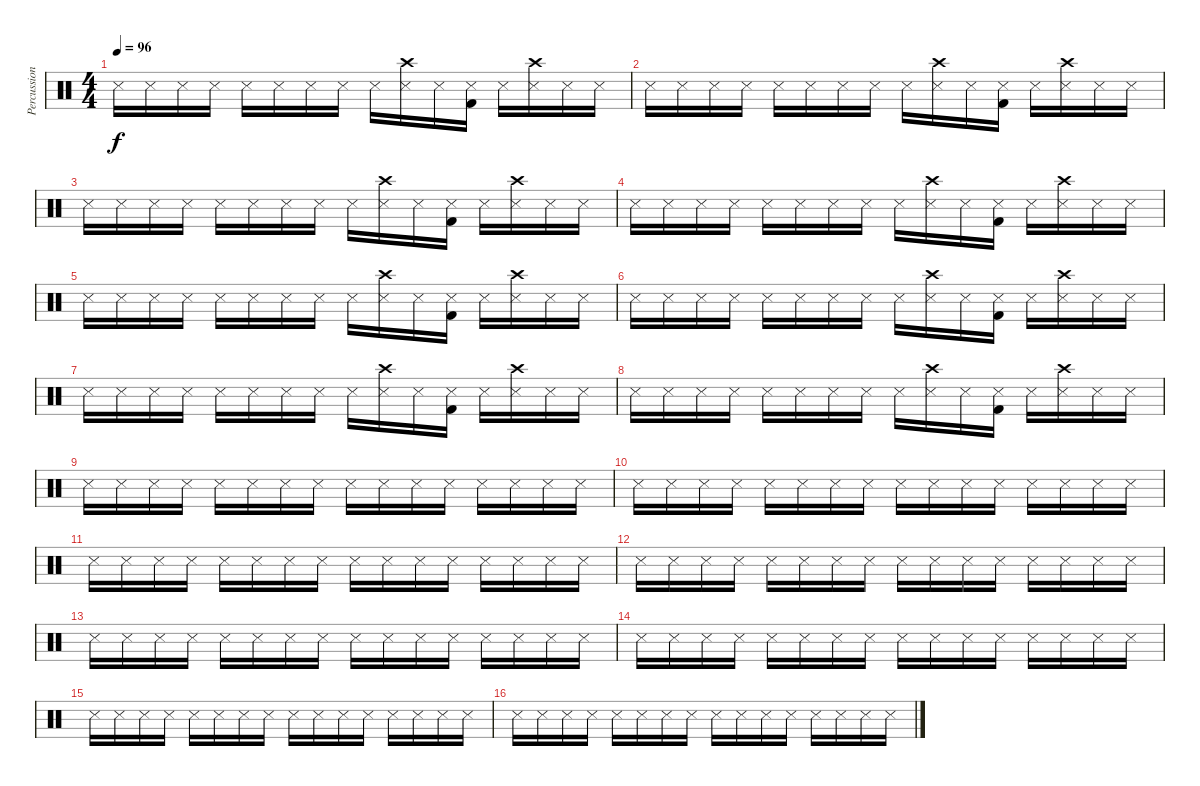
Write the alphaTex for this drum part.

\track ("Percussion 3 diff" "Percussion") {instrument percussion}
\staff {score}
\articulation defaults
\ts (4 4)
\tempo 96
\clef neutral
\ks c "Snare (side stick) 3".16{dy f} "Snare (side stick) 3".16 "Snare (side stick) 3".16 "Snare (side stick) 3".16 "Snare (side stick) 3".16 "Snare (side stick) 3".16 "Snare (side stick) 3".16 "Snare (side stick) 3".16 "Snare (side stick) 3".16
("Snare (side stick) 3" "Crash high (hit)").16 "Snare (side stick) 3".16 ("Snare (side stick) 3" "Kick (hit) 2").16 "Snare (side stick) 3".16 ("Snare (side stick) 3" "Crash high (hit)").16 "Snare (side stick) 3".16 "Snare (side stick) 3".16 |
"Snare (side stick) 3".16 "Snare (side stick) 3".16 "Snare (side stick) 3".16 "Snare (side stick) 3".16 "Snare (side stick) 3".16 "Snare (side stick) 3".16 "Snare (side stick) 3".16 "Snare (side stick) 3".16 "Snare (side stick) 3".16 ("Snare (side stick) 3" "Crash high (hit)").16 "Snare (side stick) 3".16 ("Snare (side stick) 3" "Kick (hit) 2").16 "Snare (side stick) 3".16 ("Snare (side stick) 3" "Crash high (hit)").16 "Snare (side stick) 3".16 "Snare (side stick) 3".16 |
"Snare (side stick) 3".16 "Snare (side stick) 3".16 "Snare (side stick) 3".16 "Snare (side stick) 3".16 "Snare (side stick) 3".16 "Snare (side stick) 3".16 "Snare (side stick) 3".16 "Snare (side stick) 3".16 "Snare (side stick) 3".16 ("Snare (side stick) 3" "Crash high (hit)").16 "Snare (side stick) 3".16 ("Snare (side stick) 3" "Kick (hit) 2").16 "Snare (side stick) 3".16 ("Snare (side stick) 3" "Crash high (hit)").16 "Snare (side stick) 3".16 "Snare (side stick) 3".16 |
"Snare (side stick) 3".16 "Snare (side stick) 3".16 "Snare (side stick) 3".16 "Snare (side stick) 3".16 "Snare (side stick) 3".16 "Snare (side stick) 3".16 "Snare (side stick) 3".16 "Snare (side stick) 3".16 "Snare (side stick) 3".16 ("Snare (side stick) 3" "Crash high (hit)").16 "Snare (side stick) 3".16 ("Snare (side stick) 3" "Kick (hit) 2").16 "Snare (side stick) 3".16 ("Snare (side stick) 3" "Crash high (hit)").16 "Snare (side stick) 3".16 "Snare (side stick) 3".16 |
"Snare (side stick) 3".16 "Snare (side stick) 3".16 "Snare (side stick) 3".16 "Snare (side stick) 3".16 "Snare (side stick) 3".16 "Snare (side stick) 3".16 "Snare (side stick) 3".16 "Snare (side stick) 3".16 "Snare (side stick) 3".16 ("Snare (side stick) 3" "Crash high (hit)").16 "Snare (side stick) 3".16 ("Snare (side stick) 3" "Kick (hit) 2").16 "Snare (side stick) 3".16 ("Snare (side stick) 3" "Crash high (hit)").16 "Snare (side stick) 3".16 "Snare (side stick) 3".16 |
"Snare (side stick) 3".16 "Snare (side stick) 3".16 "Snare (side stick) 3".16 "Snare (side stick) 3".16 "Snare (side stick) 3".16 "Snare (side stick) 3".16 "Snare (side stick) 3".16 "Snare (side stick) 3".16 "Snare (side stick) 3".16 ("Snare (side stick) 3" "Crash high (hit)").16 "Snare (side stick) 3".16 ("Snare (side stick) 3" "Kick (hit) 2").16 "Snare (side stick) 3".16 ("Snare (side stick) 3" "Crash high (hit)").16 "Snare (side stick) 3".16 "Snare (side stick) 3".16 |
"Snare (side stick) 3".16 "Snare (side stick) 3".16 "Snare (side stick) 3".16 "Snare (side stick) 3".16 "Snare (side stick) 3".16 "Snare (side stick) 3".16 "Snare (side stick) 3".16 "Snare (side stick) 3".16 "Snare (side stick) 3".16 ("Snare (side stick) 3" "Crash high (hit)").16 "Snare (side stick) 3".16 ("Snare (side stick) 3" "Kick (hit) 2").16 "Snare (side stick) 3".16 ("Snare (side stick) 3" "Crash high (hit)").16 "Snare (side stick) 3".16 "Snare (side stick) 3".16 |
"Snare (side stick) 3".16 "Snare (side stick) 3".16 "Snare (side stick) 3".16 "Snare (side stick) 3".16 "Snare (side stick) 3".16 "Snare (side stick) 3".16 "Snare (side stick) 3".16 "Snare (side stick) 3".16 "Snare (side stick) 3".16 ("Snare (side stick) 3" "Crash high (hit)").16 "Snare (side stick) 3".16 ("Snare (side stick) 3" "Kick (hit) 2").16 "Snare (side stick) 3".16 ("Snare (side stick) 3" "Crash high (hit)").16 "Snare (side stick) 3".16 "Snare (side stick) 3".16 |
"Snare (side stick) 3".16 "Snare (side stick) 3".16 "Snare (side stick) 3".16 "Snare (side stick) 3".16 "Snare (side stick) 3".16 "Snare (side stick) 3".16 "Snare (side stick) 3".16 "Snare (side stick) 3".16 "Snare (side stick) 3".16 "Snare (side stick) 3".16 "Snare (side stick) 3".16 "Snare (side stick) 3".16 "Snare (side stick) 3".16 "Snare (side stick) 3".16 "Snare (side stick) 3".16 "Snare (side stick) 3".16 |
"Snare (side stick) 3".16 "Snare (side stick) 3".16 "Snare (side stick) 3".16 "Snare (side stick) 3".16 "Snare (side stick) 3".16 "Snare (side stick) 3".16 "Snare (side stick) 3".16 "Snare (side stick) 3".16 "Snare (side stick) 3".16 "Snare (side stick) 3".16 "Snare (side stick) 3".16 "Snare (side stick) 3".16 "Snare (side stick) 3".16 "Snare (side stick) 3".16 "Snare (side stick) 3".16 "Snare (side stick) 3".16 |
"Snare (side stick) 3".16 "Snare (side stick) 3".16 "Snare (side stick) 3".16 "Snare (side stick) 3".16 "Snare (side stick) 3".16 "Snare (side stick) 3".16 "Snare (side stick) 3".16 "Snare (side stick) 3".16 "Snare (side stick) 3".16 "Snare (side stick) 3".16 "Snare (side stick) 3".16 "Snare (side stick) 3".16 "Snare (side stick) 3".16 "Snare (side stick) 3".16 "Snare (side stick) 3".16 "Snare (side stick) 3".16 |
"Snare (side stick) 3".16 "Snare (side stick) 3".16 "Snare (side stick) 3".16 "Snare (side stick) 3".16 "Snare (side stick) 3".16 "Snare (side stick) 3".16 "Snare (side stick) 3".16 "Snare (side stick) 3".16 "Snare (side stick) 3".16 "Snare (side stick) 3".16 "Snare (side stick) 3".16 "Snare (side stick) 3".16 "Snare (side stick) 3".16 "Snare (side stick) 3".16 "Snare (side stick) 3".16 "Snare (side stick) 3".16 |
"Snare (side stick) 3".16 "Snare (side stick) 3".16 "Snare (side stick) 3".16 "Snare (side stick) 3".16 "Snare (side stick) 3".16 "Snare (side stick) 3".16 "Snare (side stick) 3".16 "Snare (side stick) 3".16 "Snare (side stick) 3".16 "Snare (side stick) 3".16 "Snare (side stick) 3".16 "Snare (side stick) 3".16 "Snare (side stick) 3".16 "Snare (side stick) 3".16 "Snare (side stick) 3".16 "Snare (side stick) 3".16 |
"Snare (side stick) 3".16 "Snare (side stick) 3".16 "Snare (side stick) 3".16 "Snare (side stick) 3".16 "Snare (side stick) 3".16 "Snare (side stick) 3".16 "Snare (side stick) 3".16 "Snare (side stick) 3".16 "Snare (side stick) 3".16 "Snare (side stick) 3".16 "Snare (side stick) 3".16 "Snare (side stick) 3".16 "Snare (side stick) 3".16 "Snare (side stick) 3".16 "Snare (side stick) 3".16 "Snare (side stick) 3".16 |
"Snare (side stick) 3".16 "Snare (side stick) 3".16 "Snare (side stick) 3".16 "Snare (side stick) 3".16 "Snare (side stick) 3".16 "Snare (side stick) 3".16 "Snare (side stick) 3".16 "Snare (side stick) 3".16 "Snare (side stick) 3".16 "Snare (side stick) 3".16 "Snare (side stick) 3".16 "Snare (side stick) 3".16 "Snare (side stick) 3".16 "Snare (side stick) 3".16 "Snare (side stick) 3".16 "Snare (side stick) 3".16 |
"Snare (side stick) 3".16 "Snare (side stick) 3".16 "Snare (side stick) 3".16 "Snare (side stick) 3".16 "Snare (side stick) 3".16 "Snare (side stick) 3".16 "Snare (side stick) 3".16 "Snare (side stick) 3".16 "Snare (side stick) 3".16 "Snare (side stick) 3".16 "Snare (side stick) 3".16 "Snare (side stick) 3".16 "Snare (side stick) 3".16 "Snare (side stick) 3".16 "Snare (side stick) 3".16 "Snare (side stick) 3".16
